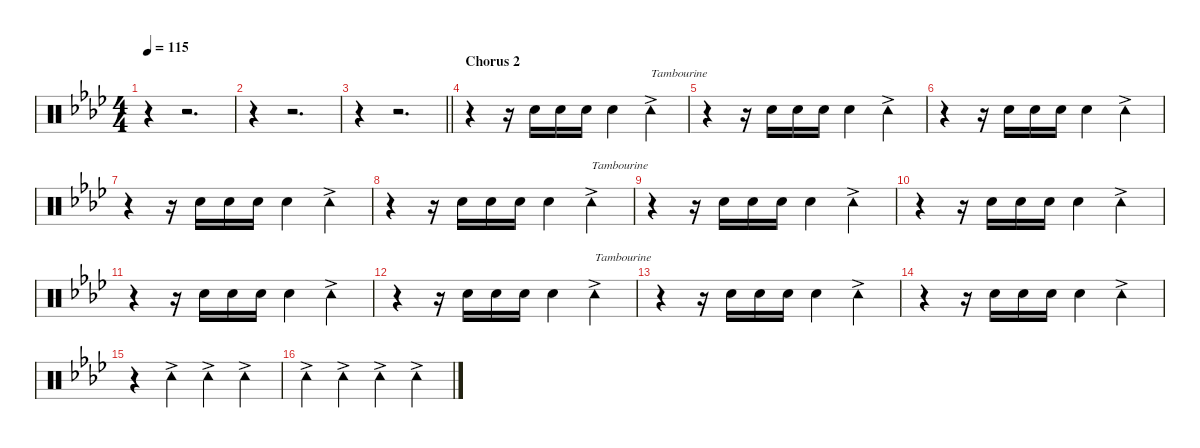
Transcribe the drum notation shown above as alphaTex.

\defaultSystemsLayout 4
\hideDynamics
\bracketExtendMode nobrackets
\singleTrackTrackNamePolicy hidden
\multiTrackTrackNamePolicy hidden
\firstSystemTrackNameMode fullname
\firstSystemTrackNameOrientation horizontal
\otherSystemsTrackNameOrientation horizontal
\track ("Percussion" "drm.") {instrument percussion}
\staff {score}
\articulation defaults
\ts (4 4)
\tempo 115
\clef neutral
\ks ab
r.4{dy mp beam Down} r.2{d beam Down} |
r.4{beam Down} r.2{d beam Down} |
\barLineRight lightlight
r.4{beam Down} r.2{d beam Down} |
\section ("" "Chorus 2")
r.4{beam Down} r.16{beam Down} "Snare (hit) 2"{acc forcenatural}.16{dy pp beam Down} "Snare (hit) 2"{acc forcenatural}.16{beam Down} "Snare (hit) 2"{acc forcenatural}.16{beam Down} "Snare (hit) 2"{acc forcenatural}.4{beam Down} "Tambourine (hit)"{ac acc forcenatural}.4{txt "Tambourine" dy f beam Down} |
r.4{beam Down} r.16{beam Down} "Snare (hit) 2"{acc forcenatural}.16{dy pp beam Down} "Snare (hit) 2"{acc forcenatural}.16{beam Down} "Snare (hit) 2"{acc forcenatural}.16{beam Down} "Snare (hit) 2"{acc forcenatural}.4{beam Down} "Tambourine (hit)"{ac acc forcenatural}.4{dy f beam Down} |
r.4{beam Down} r.16{beam Down} "Snare (hit) 2"{acc forcenatural}.16{dy pp beam Down} "Snare (hit) 2"{acc forcenatural}.16{beam Down} "Snare (hit) 2"{acc forcenatural}.16{beam Down} "Snare (hit) 2"{acc forcenatural}.4{beam Down} "Tambourine (hit)"{ac acc forcenatural}.4{dy f beam Down} |
r.4{beam Down} r.16{beam Down} "Snare (hit) 2"{acc forcenatural}.16{dy pp beam Down} "Snare (hit) 2"{acc forcenatural}.16{beam Down} "Snare (hit) 2"{acc forcenatural}.16{beam Down} "Snare (hit) 2"{acc forcenatural}.4{beam Down} "Tambourine (hit)"{ac acc forcenatural}.4{dy f beam Down} |
r.4{beam Down} r.16{beam Down} "Snare (hit) 2"{acc forcenatural}.16{dy pp beam Down} "Snare (hit) 2"{acc forcenatural}.16{beam Down} "Snare (hit) 2"{acc forcenatural}.16{beam Down} "Snare (hit) 2"{acc forcenatural}.4{beam Down} "Tambourine (hit)"{ac acc forcenatural}.4{txt "Tambourine" dy f beam Down} |
r.4{beam Down} r.16{beam Down} "Snare (hit) 2"{acc forcenatural}.16{dy pp beam Down} "Snare (hit) 2"{acc forcenatural}.16{beam Down} "Snare (hit) 2"{acc forcenatural}.16{beam Down} "Snare (hit) 2"{acc forcenatural}.4{beam Down} "Tambourine (hit)"{ac acc forcenatural}.4{dy f beam Down} |
r.4{beam Down} r.16{beam Down} "Snare (hit) 2"{acc forcenatural}.16{dy pp beam Down} "Snare (hit) 2"{acc forcenatural}.16{beam Down} "Snare (hit) 2"{acc forcenatural}.16{beam Down} "Snare (hit) 2"{acc forcenatural}.4{beam Down} "Tambourine (hit)"{ac acc forcenatural}.4{dy f beam Down} |
r.4{beam Down} r.16{beam Down} "Snare (hit) 2"{acc forcenatural}.16{dy pp beam Down} "Snare (hit) 2"{acc forcenatural}.16{beam Down} "Snare (hit) 2"{acc forcenatural}.16{beam Down} "Snare (hit) 2"{acc forcenatural}.4{beam Down} "Tambourine (hit)"{ac acc forcenatural}.4{dy f beam Down} |
r.4{beam Down} r.16{beam Down} "Snare (hit) 2"{acc forcenatural}.16{dy pp beam Down} "Snare (hit) 2"{acc forcenatural}.16{beam Down} "Snare (hit) 2"{acc forcenatural}.16{beam Down} "Snare (hit) 2"{acc forcenatural}.4{beam Down} "Tambourine (hit)"{ac acc forcenatural}.4{txt "Tambourine" dy f beam Down} |
r.4{beam Down} r.16{beam Down} "Snare (hit) 2"{acc forcenatural}.16{dy pp beam Down} "Snare (hit) 2"{acc forcenatural}.16{beam Down} "Snare (hit) 2"{acc forcenatural}.16{beam Down} "Snare (hit) 2"{acc forcenatural}.4{beam Down} "Tambourine (hit)"{ac acc forcenatural}.4{dy f beam Down} |
r.4{beam Down} r.16{beam Down} "Snare (hit) 2"{acc forcenatural}.16{dy pp beam Down} "Snare (hit) 2"{acc forcenatural}.16{beam Down} "Snare (hit) 2"{acc forcenatural}.16{beam Down} "Snare (hit) 2"{acc forcenatural}.4{beam Down} "Tambourine (hit)"{ac acc forcenatural}.4{dy f beam Down} |
r.4{beam Down} "Tambourine (hit)"{ac acc forcenatural}.4{beam Down} "Tambourine (hit)"{ac acc forcenatural}.4{beam Down} "Tambourine (hit)"{ac acc forcenatural}.4{beam Down} |
"Tambourine (hit)"{ac acc forcenatural}.4{beam Down} "Tambourine (hit)"{ac acc forcenatural}.4{beam Down} "Tambourine (hit)"{ac acc forcenatural}.4{beam Down} "Tambourine (hit)"{ac acc forcenatural}.4{beam Down}
